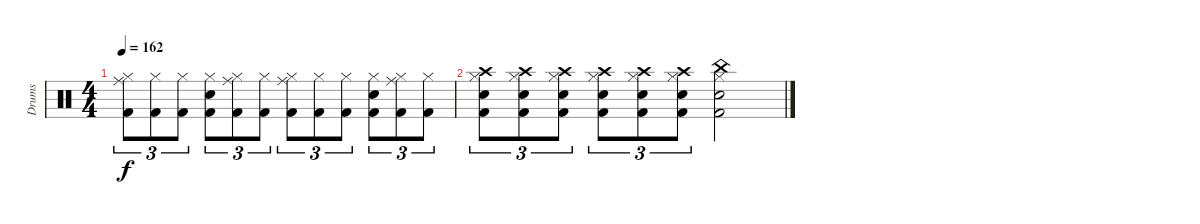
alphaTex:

\track ("Drums" "Drums") {instrument percussion}
\staff {score}
\articulation defaults
\ts (4 4)
\tempo 162
\clef neutral
\ks c
("Kick (hit) 2" "Ride (middle)" "Hi-Hat (closed)").8{tu (3 2) dy f} ("Kick (hit) 2" "Hi-Hat (closed)").8{tu (3 2)} ("Kick (hit) 2" "Hi-Hat (closed)").8{tu (3 2)} ("Kick (hit) 2" "Electric Snare (hit)" "Hi-Hat (closed)").8{tu (3 2)} ("Kick (hit) 2" "Ride (middle)" "Hi-Hat (closed)").8{tu (3 2)} ("Kick (hit) 2" "Hi-Hat (closed)").8{tu (3 2)} ("Kick (hit) 2" "Ride (middle)" "Hi-Hat (closed)").8{tu (3 2)} ("Kick (hit) 2" "Hi-Hat (closed)").8{tu (3 2)} ("Kick (hit) 2" "Hi-Hat (closed)").8{tu (3 2)} ("Kick (hit) 2" "Electric Snare (hit)" "Hi-Hat (closed)").8{tu (3 2)} ("Kick (hit) 2" "Ride (middle)" "Hi-Hat (closed)").8{tu (3 2)} ("Kick (hit) 2" "Hi-Hat (closed)").8{tu (3 2)} |
("Kick (hit) 2" "Snare (hit) 2" "Crash high (hit)" "Hi-Hat (closed)").8{tu (3 2)} ("Kick (hit) 2" "Snare (hit) 2" "Crash high (hit)" "Hi-Hat (closed)").8{tu (3 2)} ("Kick (hit) 2" "Snare (hit) 2" "Crash high (hit)" "Hi-Hat (closed)").8{tu (3 2)} ("Kick (hit) 2" "Snare (hit) 2" "Crash high (hit)" "Hi-Hat (closed)").8{tu (3 2)} ("Kick (hit) 2" "Snare (hit) 2" "Crash high (hit)" "Hi-Hat (closed)").8{tu (3 2)} ("Kick (hit) 2" "Snare (hit) 2" "Crash high (hit)" "Hi-Hat (closed)").8{tu (3 2)} ("Kick (hit) 2" "Snare (hit) 2" "China (hit)" "Hi-Hat (closed)").2
